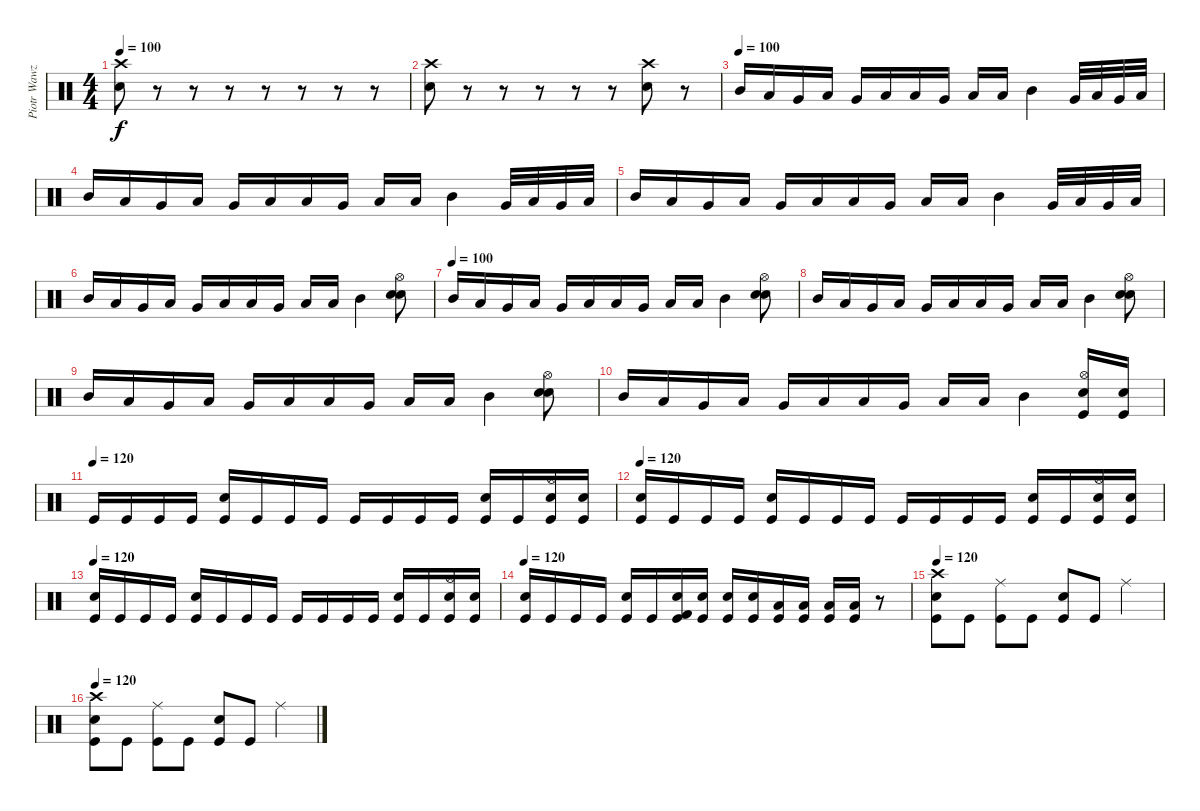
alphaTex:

\track ("Piotr Wawzeniuk (Drums)" "Piotr Wawz") {instrument percussion}
\staff {score}
\articulation defaults
\ts (4 4)
\tempo 100
\clef neutral
\ks c
("Crash high (hit)" "Electric Snare (hit)").8{dy f} r.8 r.8 r.8 r.8 r.8 r.8 r.8 |
("Crash high (hit)" "Electric Snare (hit)").8 r.8 r.8 r.8 r.8 r.8 ("Crash high (hit)" "Electric Snare (hit)").8 r.8 |
\tempo (100)
"Mid Tom (hit)".16 "Low Tom (hit)".16 "Very Low Tom (hit)".16 "Low Tom (hit)".16 "Very Low Tom (hit)".16 "Low Floor Tom (hit)".16 "Low Tom (hit)".16 "Very Low Tom (hit)".16 "Low Floor Tom (hit)".16 "Low Tom (hit)".16 "Mid Tom (hit)".4 "Very Low Tom (hit)".32 "Low Floor Tom (hit)".32 "Very Low Tom (hit)".32 "Low Floor Tom (hit)".32 |
"Mid Tom (hit)".16 "Low Tom (hit)".16 "Very Low Tom (hit)".16 "Low Tom (hit)".16 "Very Low Tom (hit)".16 "Low Floor Tom (hit)".16 "Low Tom (hit)".16 "Very Low Tom (hit)".16 "Low Floor Tom (hit)".16 "Low Tom (hit)".16 "Mid Tom (hit)".4 "Very Low Tom (hit)".32 "Low Floor Tom (hit)".32 "Very Low Tom (hit)".32 "Low Floor Tom (hit)".32 |
"Mid Tom (hit)".16 "Low Tom (hit)".16 "Very Low Tom (hit)".16 "Low Tom (hit)".16 "Very Low Tom (hit)".16 "Low Floor Tom (hit)".16 "Low Tom (hit)".16 "Very Low Tom (hit)".16 "Low Floor Tom (hit)".16 "Low Tom (hit)".16 "Mid Tom (hit)".4 "Very Low Tom (hit)".32 "Low Floor Tom (hit)".32 "Very Low Tom (hit)".32 "Low Floor Tom (hit)".32 |
"Mid Tom (hit)".16 "Low Tom (hit)".16 "Very Low Tom (hit)".16 "Low Tom (hit)".16 "Very Low Tom (hit)".16 "Low Floor Tom (hit)".16 "Low Tom (hit)".16 "Very Low Tom (hit)".16 "Low Floor Tom (hit)".16 "Low Tom (hit)".16 "Mid Tom (hit)".4 ("Hi-Hat (open)" "Snare (hit) 2" "Electric Snare (hit)").8 |
\tempo (100)
"Mid Tom (hit)".16 "Low Tom (hit)".16 "Very Low Tom (hit)".16 "Low Tom (hit)".16 "Very Low Tom (hit)".16 "Low Floor Tom (hit)".16 "Low Tom (hit)".16 "Very Low Tom (hit)".16 "Low Floor Tom (hit)".16 "Low Tom (hit)".16 "Mid Tom (hit)".4 ("Hi-Hat (open)" "Snare (hit) 2" "Electric Snare (hit)").8 |
"Mid Tom (hit)".16 "Low Tom (hit)".16 "Very Low Tom (hit)".16 "Low Tom (hit)".16 "Very Low Tom (hit)".16 "Low Floor Tom (hit)".16 "Low Tom (hit)".16 "Very Low Tom (hit)".16 "Low Floor Tom (hit)".16 "Low Tom (hit)".16 "Mid Tom (hit)".4 ("Hi-Hat (open)" "Snare (hit) 2" "Electric Snare (hit)").8 |
"Mid Tom (hit)".16 "Low Tom (hit)".16 "Very Low Tom (hit)".16 "Low Tom (hit)".16 "Very Low Tom (hit)".16 "Low Floor Tom (hit)".16 "Low Tom (hit)".16 "Very Low Tom (hit)".16 "Low Floor Tom (hit)".16 "Low Tom (hit)".16 "Mid Tom (hit)".4 ("Hi-Hat (open)" "Snare (hit) 2" "Electric Snare (hit)").8 |
"Mid Tom (hit)".16 "Low Tom (hit)".16 "Very Low Tom (hit)".16 "Low Tom (hit)".16 "Very Low Tom (hit)".16 "Low Floor Tom (hit)".16 "Low Tom (hit)".16 "Very Low Tom (hit)".16 "Low Floor Tom (hit)".16 "Low Tom (hit)".16 "Mid Tom (hit)".4 ("Kick (hit)" "Electric Snare (hit)" "Hi-Hat (open)").16 ("Kick (hit)" "Electric Snare (hit)").16 |
\tempo (120)
"Kick (hit)".16 "Kick (hit)".16 "Kick (hit)".16 "Kick (hit)".16 ("Kick (hit)" "Electric Snare (hit)").16 "Kick (hit)".16 "Kick (hit)".16 "Kick (hit)".16 "Kick (hit)".16 "Kick (hit)".16 "Kick (hit)".16 "Kick (hit)".16 ("Kick (hit)" "Electric Snare (hit)").16 "Kick (hit)".16 ("Kick (hit)" "Electric Snare (hit)" "Hi-Hat (open)").16 ("Kick (hit)" "Electric Snare (hit)").16 |
\tempo 120
("Kick (hit)" "Electric Snare (hit)").16 "Kick (hit)".16 "Kick (hit)".16 "Kick (hit)".16 ("Kick (hit)" "Electric Snare (hit)").16 "Kick (hit)".16 "Kick (hit)".16 "Kick (hit)".16 "Kick (hit)".16 "Kick (hit)".16 "Kick (hit)".16 "Kick (hit)".16 ("Kick (hit)" "Electric Snare (hit)").16 "Kick (hit)".16 ("Kick (hit)" "Electric Snare (hit)" "Hi-Hat (open)").16 ("Kick (hit)" "Electric Snare (hit)").16 |
\tempo 120
("Kick (hit)" "Electric Snare (hit)").16 "Kick (hit)".16 "Kick (hit)".16 "Kick (hit)".16 ("Kick (hit)" "Electric Snare (hit)").16 "Kick (hit)".16 "Kick (hit)".16 "Kick (hit)".16 "Kick (hit)".16 "Kick (hit)".16 "Kick (hit)".16 "Kick (hit)".16 ("Kick (hit)" "Electric Snare (hit)").16 "Kick (hit)".16 ("Kick (hit)" "Electric Snare (hit)" "Hi-Hat (open)").16 ("Kick (hit)" "Electric Snare (hit)").16 |
\tempo 120
("Kick (hit)" "Electric Snare (hit)").16 "Kick (hit)".16 "Kick (hit)".16 "Kick (hit)".16 ("Kick (hit)" "Electric Snare (hit)").16 "Kick (hit)".16 ("Kick (hit)" "Electric Snare (hit)" "Kick (hit) 2").16 ("Kick (hit)" "Electric Snare (hit)").16 ("Kick (hit)" "Electric Snare (hit)").16 ("Kick (hit)" "Electric Snare (hit)").16 ("Kick (hit)" "Low Floor Tom (hit)").16 ("Kick (hit)" "Low Floor Tom (hit)").16 ("Kick (hit)" "Low Floor Tom (hit)").16 ("Kick (hit)" "Low Floor Tom (hit)").16 r.8 |
\tempo 120
("Kick (hit)" "Electric Snare (hit)" "Crash high (hit)").8 "Kick (hit)".8 ("Kick (hit)" "Ride (middle)").8 "Kick (hit)".8 ("Kick (hit)" "Electric Snare (hit)").8 "Kick (hit)".8 "Ride (middle)".4 |
\tempo 120
("Kick (hit)" "Electric Snare (hit)" "Crash high (hit)").8 "Kick (hit)".8 ("Kick (hit)" "Ride (middle)").8 "Kick (hit)".8 ("Kick (hit)" "Electric Snare (hit)").8 "Kick (hit)".8 "Ride (middle)".4
